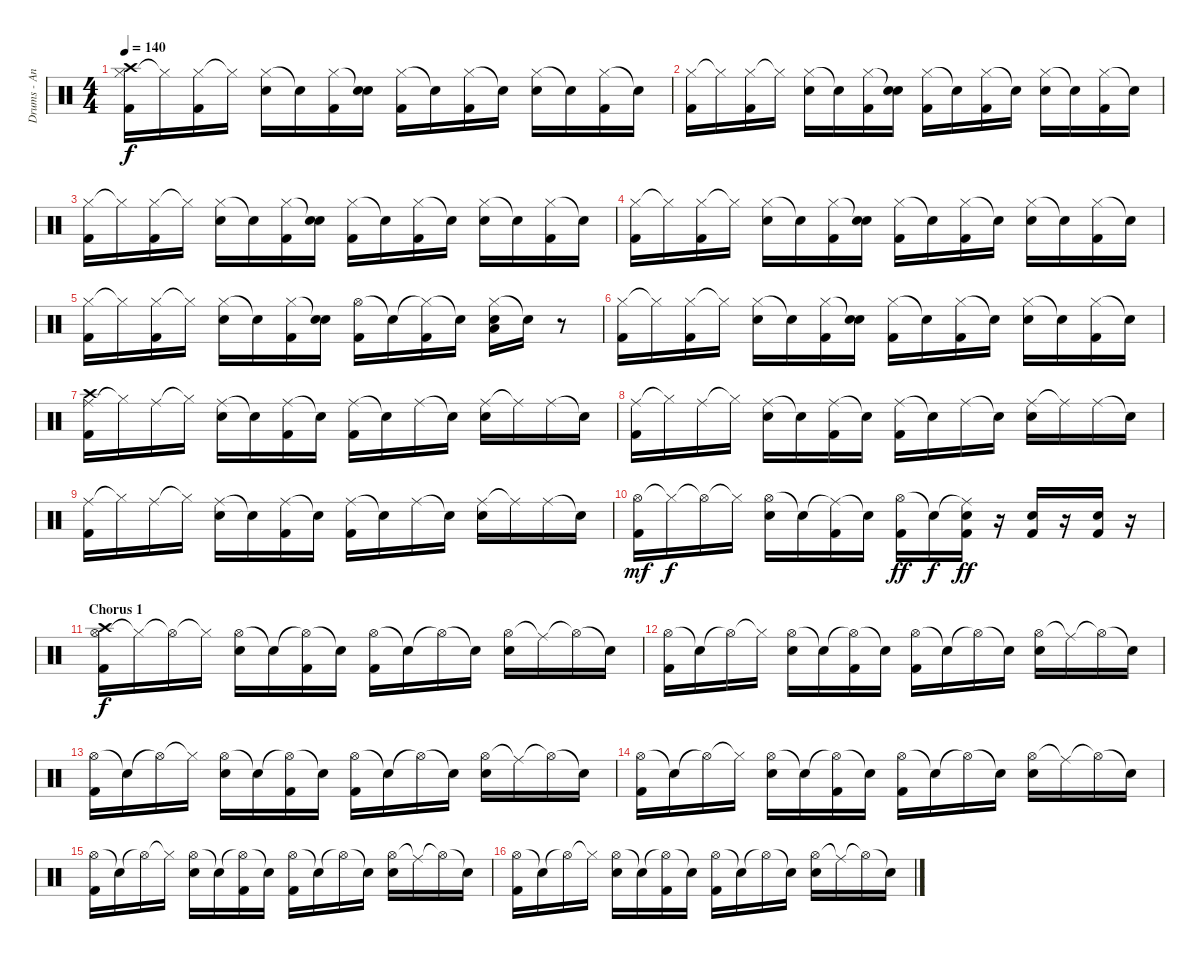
\track ("Drums - Andy Strachan" "Drums - An") {instrument percussion}
\staff {score}
\articulation defaults
\ts (4 4)
\tempo 140
\clef neutral
\ks c
("Hi-Hat (closed)" "Kick (hit) 2" "Crash high (hit)").16{dy f} "Hi-Hat (closed)"{t}.16 ("Hi-Hat (closed)" "Kick (hit) 2").16 "Hi-Hat (closed)"{t}.16 ("Hi-Hat (closed)" "Electric Snare (hit)").16 "Snare (hit)"{t}.16 ("Hi-Hat (closed)" "Kick (hit) 2").16 ("Snare (hit)"{t} "Electric Snare (hit)").16 ("Hi-Hat (closed)" "Kick (hit) 2").16 "Snare (hit)"{t}.16 ("Hi-Hat (closed)" "Kick (hit) 2").16 "Snare (hit)"{t}.16 ("Hi-Hat (closed)" "Electric Snare (hit)").16 "Snare (hit)"{t}.16 ("Hi-Hat (closed)" "Kick (hit) 2").16 "Snare (hit)"{t}.16 |
("Hi-Hat (closed)" "Kick (hit) 2").16 "Hi-Hat (closed)"{t}.16 ("Hi-Hat (closed)" "Kick (hit) 2").16 "Hi-Hat (closed)"{t}.16 ("Hi-Hat (closed)" "Electric Snare (hit)").16 "Snare (hit)"{t}.16 ("Hi-Hat (closed)" "Kick (hit) 2").16 ("Snare (hit)"{t} "Electric Snare (hit)").16 ("Hi-Hat (closed)" "Kick (hit) 2").16 "Snare (hit)"{t}.16 ("Hi-Hat (closed)" "Kick (hit) 2").16 "Snare (hit)"{t}.16 ("Hi-Hat (closed)" "Electric Snare (hit)").16 "Snare (hit)"{t}.16 ("Hi-Hat (closed)" "Kick (hit) 2").16 "Snare (hit)"{t}.16 |
("Hi-Hat (closed)" "Kick (hit) 2").16 "Hi-Hat (closed)"{t}.16 ("Hi-Hat (closed)" "Kick (hit) 2").16 "Hi-Hat (closed)"{t}.16 ("Hi-Hat (closed)" "Electric Snare (hit)").16 "Snare (hit)"{t}.16 ("Hi-Hat (closed)" "Kick (hit) 2").16 ("Snare (hit)"{t} "Electric Snare (hit)").16 ("Hi-Hat (closed)" "Kick (hit) 2").16 "Snare (hit)"{t}.16 ("Hi-Hat (closed)" "Kick (hit) 2").16 "Snare (hit)"{t}.16 ("Hi-Hat (closed)" "Electric Snare (hit)").16 "Snare (hit)"{t}.16 ("Hi-Hat (closed)" "Kick (hit) 2").16 "Snare (hit)"{t}.16 |
("Hi-Hat (closed)" "Kick (hit) 2").16 "Hi-Hat (closed)"{t}.16 ("Hi-Hat (closed)" "Kick (hit) 2").16 "Hi-Hat (closed)"{t}.16 ("Hi-Hat (closed)" "Electric Snare (hit)").16 "Snare (hit)"{t}.16 ("Hi-Hat (closed)" "Kick (hit) 2").16 ("Snare (hit)"{t} "Electric Snare (hit)").16 ("Hi-Hat (closed)" "Kick (hit) 2").16 "Snare (hit)"{t}.16 ("Hi-Hat (closed)" "Kick (hit) 2").16 "Snare (hit)"{t}.16 ("Hi-Hat (closed)" "Electric Snare (hit)").16 "Snare (hit)"{t}.16 ("Hi-Hat (closed)" "Kick (hit) 2").16 "Snare (hit)"{t}.16 |
("Hi-Hat (closed)" "Kick (hit) 2").16 "Hi-Hat (closed)"{t}.16 ("Hi-Hat (closed)" "Kick (hit) 2").16 "Hi-Hat (closed)"{t}.16 ("Hi-Hat (closed)" "Electric Snare (hit)").16 "Snare (hit)"{t}.16 ("Hi-Hat (closed)" "Kick (hit) 2").16 ("Snare (hit)"{t} "Electric Snare (hit)").16 ("Hi-Hat (open)" "Kick (hit) 2").16 "Snare (hit)"{t}.16 ("Hi-Hat (closed)"{t} "Kick (hit) 2").16 "Snare (hit)"{t}.16 ("Hi-Hat (closed)" "Electric Snare (hit)" "Low Floor Tom (hit)").16 "Snare (hit)"{t}.16 r.8 |
("Hi-Hat (closed)" "Kick (hit) 2").16 "Hi-Hat (closed)"{t}.16 ("Hi-Hat (closed)" "Kick (hit) 2").16 "Hi-Hat (closed)"{t}.16 ("Hi-Hat (closed)" "Electric Snare (hit)").16 "Snare (hit)"{t}.16 ("Hi-Hat (closed)" "Kick (hit) 2").16 ("Snare (hit)"{t} "Electric Snare (hit)").16 ("Hi-Hat (closed)" "Kick (hit) 2").16 "Snare (hit)"{t}.16 ("Hi-Hat (closed)" "Kick (hit) 2").16 "Snare (hit)"{t}.16 ("Hi-Hat (closed)" "Electric Snare (hit)").16 "Snare (hit)"{t}.16 ("Hi-Hat (closed)" "Kick (hit) 2").16 "Snare (hit)"{t}.16 |
("Ride (middle)" "Kick (hit) 2" "Crash high (hit)").16 "Hi-Hat (closed)"{t}.16 "Ride (middle)".16 "Hi-Hat (closed)"{t}.16 ("Ride (middle)" "Electric Snare (hit)").16 "Snare (hit)"{t}.16 ("Ride (middle)" "Kick (hit) 2").16 "Snare (hit)"{t}.16 ("Ride (middle)" "Kick (hit) 2").16 "Snare (hit)"{t}.16 "Ride (middle)".16 "Snare (hit)"{t}.16 ("Ride (middle)" "Electric Snare (hit)").16 "Ride (middle)"{t}.16 "Ride (middle)".16 "Snare (hit)"{t}.16 |
("Ride (middle)" "Kick (hit) 2").16 "Hi-Hat (closed)"{t}.16 "Ride (middle)".16 "Hi-Hat (closed)"{t}.16 ("Ride (middle)" "Electric Snare (hit)").16 "Snare (hit)"{t}.16 ("Ride (middle)" "Kick (hit) 2").16 "Snare (hit)"{t}.16 ("Ride (middle)" "Kick (hit) 2").16 "Snare (hit)"{t}.16 "Ride (middle)".16 "Snare (hit)"{t}.16 ("Ride (middle)" "Electric Snare (hit)").16 "Ride (middle)"{t}.16 "Ride (middle)".16 "Snare (hit)"{t}.16 |
("Ride (middle)" "Kick (hit) 2").16 "Hi-Hat (closed)"{t}.16 "Ride (middle)".16 "Hi-Hat (closed)"{t}.16 ("Ride (middle)" "Electric Snare (hit)").16 "Snare (hit)"{t}.16 ("Ride (middle)" "Kick (hit) 2").16 "Snare (hit)"{t}.16 ("Ride (middle)" "Kick (hit) 2").16 "Snare (hit)"{t}.16 "Ride (middle)".16 "Snare (hit)"{t}.16 ("Ride (middle)" "Electric Snare (hit)").16 "Ride (middle)"{t}.16 "Ride (middle)".16 "Snare (hit)"{t}.16 |
("Hi-Hat (open)" "Kick (hit) 2").16{dy mf} "Hi-Hat (closed)"{t}.16{dy f} "Hi-Hat (open)"{t}.16 "Hi-Hat (closed)"{t}.16 ("Hi-Hat (open)" "Electric Snare (hit)").16 "Snare (hit)"{t}.16 ("Ride (middle)"{t} "Kick (hit) 2").16 "Snare (hit)"{t}.16 ("Hi-Hat (open)" "Kick (hit) 2").16{dy ff} "Snare (hit)"{t}.16{dy f} ("Ride (middle)"{t} "Kick (hit) 2" "Electric Snare (hit)").16{dy ff} r.16 ("Kick (hit) 2" "Electric Snare (hit)").16 r.16 ("Kick (hit) 2" "Electric Snare (hit)").16 r.16 |
\section ("" "Chorus 1")
("Hi-Hat (open)" "Kick (hit) 2" "Crash high (hit)").16{dy f} "Hi-Hat (closed)"{t}.16 "Hi-Hat (open)"{t}.16 "Hi-Hat (closed)"{t}.16 ("Hi-Hat (open)" "Electric Snare (hit)").16 "Snare (hit)"{t}.16 ("Hi-Hat (open)"{t} "Kick (hit) 2").16 "Snare (hit)"{t}.16 ("Hi-Hat (open)" "Kick (hit) 2").16 "Snare (hit)"{t}.16 "Hi-Hat (open)"{t}.16 "Snare (hit)"{t}.16 ("Hi-Hat (open)" "Electric Snare (hit)").16 "Ride (middle)"{t}.16 "Hi-Hat (open)"{t}.16 "Snare (hit)"{t}.16 |
("Hi-Hat (open)" "Kick (hit) 2").16 "Snare (hit)"{t}.16 "Hi-Hat (open)"{t}.16 "Hi-Hat (closed)"{t}.16 ("Hi-Hat (open)" "Electric Snare (hit)").16 "Snare (hit)"{t}.16 ("Hi-Hat (open)"{t} "Kick (hit) 2").16 "Snare (hit)"{t}.16 ("Hi-Hat (open)" "Kick (hit) 2").16 "Snare (hit)"{t}.16 "Hi-Hat (open)"{t}.16 "Snare (hit)"{t}.16 ("Hi-Hat (open)" "Electric Snare (hit)").16 "Ride (middle)"{t}.16 "Hi-Hat (open)"{t}.16 "Snare (hit)"{t}.16 |
("Hi-Hat (open)" "Kick (hit) 2").16 "Snare (hit)"{t}.16 "Hi-Hat (open)"{t}.16 "Hi-Hat (closed)"{t}.16 ("Hi-Hat (open)" "Electric Snare (hit)").16 "Snare (hit)"{t}.16 ("Hi-Hat (open)"{t} "Kick (hit) 2").16 "Snare (hit)"{t}.16 ("Hi-Hat (open)" "Kick (hit) 2").16 "Snare (hit)"{t}.16 "Hi-Hat (open)"{t}.16 "Snare (hit)"{t}.16 ("Hi-Hat (open)" "Electric Snare (hit)").16 "Ride (middle)"{t}.16 "Hi-Hat (open)"{t}.16 "Snare (hit)"{t}.16 |
("Hi-Hat (open)" "Kick (hit) 2").16 "Snare (hit)"{t}.16 "Hi-Hat (open)"{t}.16 "Hi-Hat (closed)"{t}.16 ("Hi-Hat (open)" "Electric Snare (hit)").16 "Snare (hit)"{t}.16 ("Hi-Hat (open)"{t} "Kick (hit) 2").16 "Snare (hit)"{t}.16 ("Hi-Hat (open)" "Kick (hit) 2").16 "Snare (hit)"{t}.16 "Hi-Hat (open)"{t}.16 "Snare (hit)"{t}.16 ("Hi-Hat (open)" "Electric Snare (hit)").16 "Ride (middle)"{t}.16 "Hi-Hat (open)"{t}.16 "Snare (hit)"{t}.16 |
("Hi-Hat (open)" "Kick (hit) 2").16 "Snare (hit)"{t}.16 "Hi-Hat (open)"{t}.16 "Hi-Hat (closed)"{t}.16 ("Hi-Hat (open)" "Electric Snare (hit)").16 "Snare (hit)"{t}.16 ("Hi-Hat (open)"{t} "Kick (hit) 2").16 "Snare (hit)"{t}.16 ("Hi-Hat (open)" "Kick (hit) 2").16 "Snare (hit)"{t}.16 "Hi-Hat (open)"{t}.16 "Snare (hit)"{t}.16 ("Hi-Hat (open)" "Electric Snare (hit)").16 "Ride (middle)"{t}.16 "Hi-Hat (open)"{t}.16 "Snare (hit)"{t}.16 |
("Hi-Hat (open)" "Kick (hit) 2").16 "Snare (hit)"{t}.16 "Hi-Hat (open)"{t}.16 "Hi-Hat (closed)"{t}.16 ("Hi-Hat (open)" "Electric Snare (hit)").16 "Snare (hit)"{t}.16 ("Hi-Hat (open)"{t} "Kick (hit) 2").16 "Snare (hit)"{t}.16 ("Hi-Hat (open)" "Kick (hit) 2").16 "Snare (hit)"{t}.16 "Hi-Hat (open)"{t}.16 "Snare (hit)"{t}.16 ("Hi-Hat (open)" "Electric Snare (hit)").16 "Ride (middle)"{t}.16 "Hi-Hat (open)"{t}.16 "Snare (hit)"{t}.16
